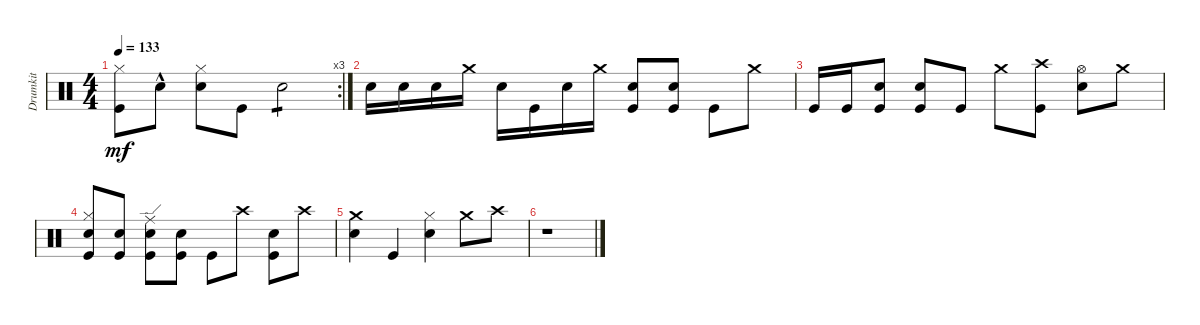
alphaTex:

\track ("Drumkit" "Drumkit") {instrument percussion}
\staff {score}
\articulation defaults
\rc 3
\ts (4 4)
\tempo 133
\clef neutral
\ks c
("Kick (hit)" "Hi-Hat (closed)").8{dy mf} "Snare (hit) 2"{hac}.8 ("Snare (hit) 2" "Hi-Hat (closed)").8 "Kick (hit)".8 "Snare (hit) 2".2{tp 1} |
"Snare (hit) 2".16 "Snare (hit) 2".16 "Snare (hit) 2".16 "Crash medium (hit)".16 "Snare (hit) 2".16 "Kick (hit)".16 "Snare (hit) 2".16 "Crash medium (hit)".16 ("Snare (hit) 2" "Kick (hit)").8 ("Snare (hit) 2" "Kick (hit)").8 "Kick (hit)".8 "Crash medium (hit)".8 |
"Kick (hit)".16 "Kick (hit)".16 ("Snare (hit) 2" "Kick (hit)").8 ("Snare (hit) 2" "Kick (hit)").8 "Kick (hit)".8 "Crash medium (hit)".8 ("Kick (hit)" "Crash high (hit)").8 ("Snare (hit) 2" "Hi-Hat (open)").8 "Crash medium (hit)".8 |
("Snare (hit) 2" "Kick (hit)" "Hi-Hat (closed)").8 ("Kick (hit)" "Snare (hit) 2").8 ("Kick (hit)" "Snare (hit) 2" "Ride (edge)").8 ("Snare (hit) 2" "Kick (hit)").8 "Kick (hit)".8 "Crash high (hit)".8 ("Snare (hit) 2" "Kick (hit)").8 "Crash high (hit)".8 |
("Snare (hit) 2" "Crash medium (hit)").4 "Kick (hit)".4 ("Snare (hit) 2" "Hi-Hat (closed)").4 "Crash medium (hit)".8 "Crash high (hit)".8 |
r.1
